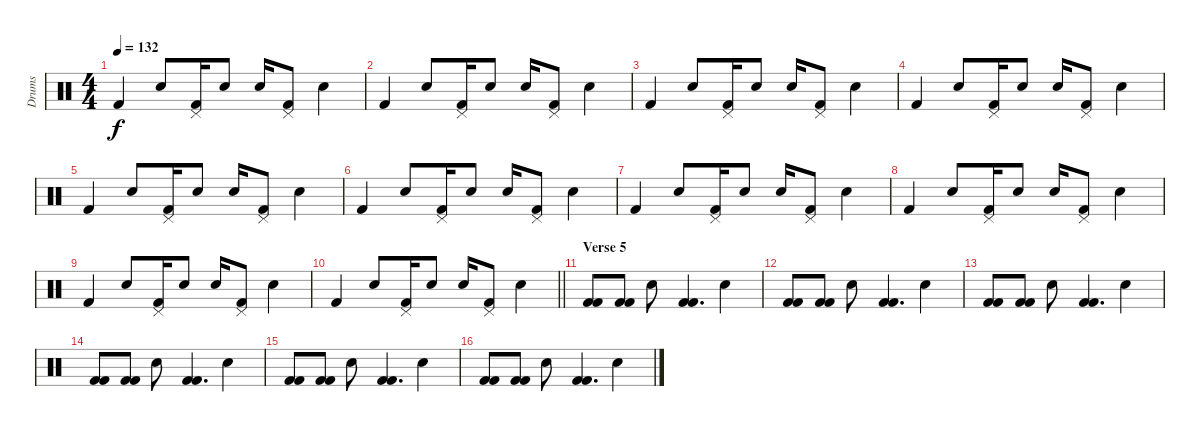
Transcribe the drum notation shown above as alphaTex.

\track ("Drums" "Drums") {instrument percussion}
\staff {score}
\articulation defaults
\ts (4 4)
\tempo 132
\clef neutral
\ks c "Kick (hit) 2".4{dy f} "Snare (hit) 2".8
("Pedal Hi-Hat (hit)" "Kick (hit) 2").16 "Snare (hit) 2".8 "Snare (hit) 2".16 ("Pedal Hi-Hat (hit)" "Kick (hit) 2").8 "Snare (hit) 2".4 |
"Kick (hit) 2".4 "Snare (hit) 2".8 ("Pedal Hi-Hat (hit)" "Kick (hit) 2").16 "Snare (hit) 2".8 "Snare (hit) 2".16 ("Pedal Hi-Hat (hit)" "Kick (hit) 2").8 "Snare (hit) 2".4 |
"Kick (hit) 2".4 "Snare (hit) 2".8 ("Pedal Hi-Hat (hit)" "Kick (hit) 2").16 "Snare (hit) 2".8 "Snare (hit) 2".16 ("Pedal Hi-Hat (hit)" "Kick (hit) 2").8 "Snare (hit) 2".4 |
"Kick (hit) 2".4 "Snare (hit) 2".8 ("Pedal Hi-Hat (hit)" "Kick (hit) 2").16 "Snare (hit) 2".8 "Snare (hit) 2".16 ("Pedal Hi-Hat (hit)" "Kick (hit) 2").8 "Snare (hit) 2".4 |
"Kick (hit) 2".4 "Snare (hit) 2".8 ("Pedal Hi-Hat (hit)" "Kick (hit) 2").16 "Snare (hit) 2".8 "Snare (hit) 2".16 ("Pedal Hi-Hat (hit)" "Kick (hit) 2").8 "Snare (hit) 2".4 |
"Kick (hit) 2".4 "Snare (hit) 2".8 ("Pedal Hi-Hat (hit)" "Kick (hit) 2").16 "Snare (hit) 2".8 "Snare (hit) 2".16 ("Pedal Hi-Hat (hit)" "Kick (hit) 2").8 "Snare (hit) 2".4 |
"Kick (hit) 2".4 "Snare (hit) 2".8 ("Pedal Hi-Hat (hit)" "Kick (hit) 2").16 "Snare (hit) 2".8 "Snare (hit) 2".16 ("Pedal Hi-Hat (hit)" "Kick (hit) 2").8 "Snare (hit) 2".4 |
"Kick (hit) 2".4 "Snare (hit) 2".8 ("Pedal Hi-Hat (hit)" "Kick (hit) 2").16 "Snare (hit) 2".8 "Snare (hit) 2".16 ("Pedal Hi-Hat (hit)" "Kick (hit) 2").8 "Snare (hit) 2".4 |
"Kick (hit) 2".4 "Snare (hit) 2".8 ("Pedal Hi-Hat (hit)" "Kick (hit) 2").16 "Snare (hit) 2".8 "Snare (hit) 2".16 ("Pedal Hi-Hat (hit)" "Kick (hit) 2").8 "Snare (hit) 2".4 |
\barLineRight lightlight "Kick (hit) 2".4 "Snare (hit) 2".8
("Pedal Hi-Hat (hit)" "Kick (hit) 2").16 "Snare (hit) 2".8 "Snare (hit) 2".16 ("Pedal Hi-Hat (hit)" "Kick (hit) 2").8 "Snare (hit) 2".4 |
\section ("" "Verse 5")
("Kick (hit) 2" "Kick (hit) 2").8 ("Kick (hit) 2" "Kick (hit) 2").8 "Snare (hit) 2".8 ("Kick (hit) 2" "Kick (hit) 2").4{d} "Snare (hit) 2".4 |
("Kick (hit) 2" "Kick (hit) 2").8 ("Kick (hit) 2" "Kick (hit) 2").8 "Snare (hit) 2".8 ("Kick (hit) 2" "Kick (hit) 2").4{d} "Snare (hit) 2".4 |
("Kick (hit) 2" "Kick (hit) 2").8 ("Kick (hit) 2" "Kick (hit) 2").8 "Snare (hit) 2".8 ("Kick (hit) 2" "Kick (hit) 2").4{d} "Snare (hit) 2".4 |
("Kick (hit) 2" "Kick (hit) 2").8 ("Kick (hit) 2" "Kick (hit) 2").8 "Snare (hit) 2".8 ("Kick (hit) 2" "Kick (hit) 2").4{d} "Snare (hit) 2".4 |
("Kick (hit) 2" "Kick (hit) 2").8 ("Kick (hit) 2" "Kick (hit) 2").8 "Snare (hit) 2".8 ("Kick (hit) 2" "Kick (hit) 2").4{d} "Snare (hit) 2".4 |
("Kick (hit) 2" "Kick (hit) 2").8 ("Kick (hit) 2" "Kick (hit) 2").8 "Snare (hit) 2".8 ("Kick (hit) 2" "Kick (hit) 2").4{d} "Snare (hit) 2".4
